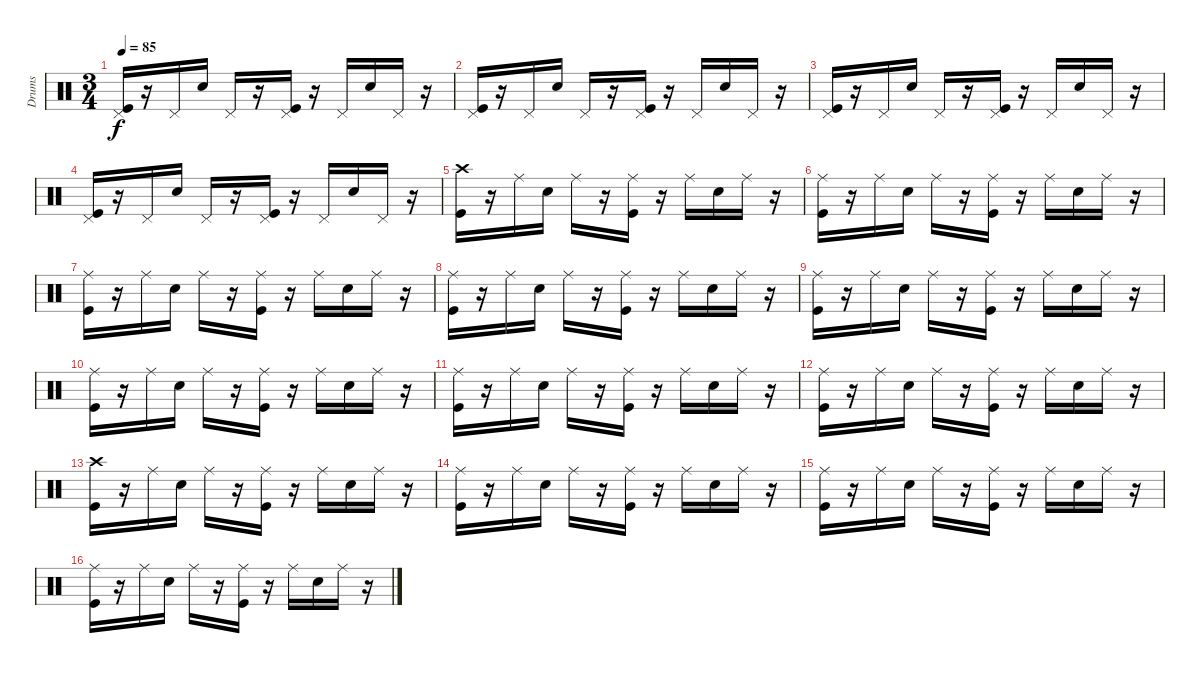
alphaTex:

\track ("Drums" "Drums") {instrument percussion}
\staff {score}
\articulation defaults
\ts (3 4)
\tempo 85
\clef neutral
\ks c
("Pedal Hi-Hat (hit)" "Kick (hit)").16{dy f} r.16 "Pedal Hi-Hat (hit)".16 "Electric Snare (hit)".16 "Pedal Hi-Hat (hit)".16 r.16 ("Pedal Hi-Hat (hit)" "Kick (hit)").16 r.16 "Pedal Hi-Hat (hit)".16 "Electric Snare (hit)".16 "Pedal Hi-Hat (hit)".16 r.16 |
("Pedal Hi-Hat (hit)" "Kick (hit)").16 r.16 "Pedal Hi-Hat (hit)".16 "Electric Snare (hit)".16 "Pedal Hi-Hat (hit)".16 r.16 ("Pedal Hi-Hat (hit)" "Kick (hit)").16 r.16 "Pedal Hi-Hat (hit)".16 "Electric Snare (hit)".16 "Pedal Hi-Hat (hit)".16 r.16 |
("Pedal Hi-Hat (hit)" "Kick (hit)").16 r.16 "Pedal Hi-Hat (hit)".16 "Electric Snare (hit)".16 "Pedal Hi-Hat (hit)".16 r.16 ("Pedal Hi-Hat (hit)" "Kick (hit)").16 r.16 "Pedal Hi-Hat (hit)".16 "Electric Snare (hit)".16 "Pedal Hi-Hat (hit)".16 r.16 |
("Pedal Hi-Hat (hit)" "Kick (hit)").16 r.16 "Pedal Hi-Hat (hit)".16 "Electric Snare (hit)".16 "Pedal Hi-Hat (hit)".16 r.16 ("Pedal Hi-Hat (hit)" "Kick (hit)").16 r.16 "Pedal Hi-Hat (hit)".16 "Electric Snare (hit)".16 "Pedal Hi-Hat (hit)".16 r.16 |
("Crash high (hit)" "Kick (hit)").16 r.16 "Ride (middle)".16 "Electric Snare (hit)".16 "Ride (middle)".16 r.16 ("Ride (middle)" "Kick (hit)").16 r.16 "Ride (middle)".16 "Electric Snare (hit)".16 "Ride (middle)".16 r.16 |
("Ride (middle)" "Kick (hit)").16 r.16 "Ride (middle)".16 "Electric Snare (hit)".16 "Ride (middle)".16 r.16 ("Ride (middle)" "Kick (hit)").16 r.16 "Ride (middle)".16 "Electric Snare (hit)".16 "Ride (middle)".16 r.16 |
("Ride (middle)" "Kick (hit)").16 r.16 "Ride (middle)".16 "Electric Snare (hit)".16 "Ride (middle)".16 r.16 ("Ride (middle)" "Kick (hit)").16 r.16 "Ride (middle)".16 "Electric Snare (hit)".16 "Ride (middle)".16 r.16 |
("Ride (middle)" "Kick (hit)").16 r.16 "Ride (middle)".16 "Electric Snare (hit)".16 "Ride (middle)".16 r.16 ("Ride (middle)" "Kick (hit)").16 r.16 "Ride (middle)".16 "Electric Snare (hit)".16 "Ride (middle)".16 r.16 |
("Ride (middle)" "Kick (hit)").16 r.16 "Ride (middle)".16 "Electric Snare (hit)".16 "Ride (middle)".16 r.16 ("Ride (middle)" "Kick (hit)").16 r.16 "Ride (middle)".16 "Electric Snare (hit)".16 "Ride (middle)".16 r.16 |
("Ride (middle)" "Kick (hit)").16 r.16 "Ride (middle)".16 "Electric Snare (hit)".16 "Ride (middle)".16 r.16 ("Ride (middle)" "Kick (hit)").16 r.16 "Ride (middle)".16 "Electric Snare (hit)".16 "Ride (middle)".16 r.16 |
("Ride (middle)" "Kick (hit)").16 r.16 "Ride (middle)".16 "Electric Snare (hit)".16 "Ride (middle)".16 r.16 ("Ride (middle)" "Kick (hit)").16 r.16 "Ride (middle)".16 "Electric Snare (hit)".16 "Ride (middle)".16 r.16 |
("Ride (middle)" "Kick (hit)").16 r.16 "Ride (middle)".16 "Electric Snare (hit)".16 "Ride (middle)".16 r.16 ("Ride (middle)" "Kick (hit)").16 r.16 "Ride (middle)".16 "Electric Snare (hit)".16 "Ride (middle)".16 r.16 |
("Crash high (hit)" "Kick (hit)").16 r.16 "Ride (middle)".16 "Electric Snare (hit)".16 "Ride (middle)".16 r.16 ("Ride (middle)" "Kick (hit)").16 r.16 "Ride (middle)".16 "Electric Snare (hit)".16 "Ride (middle)".16 r.16 |
("Ride (middle)" "Kick (hit)").16 r.16 "Ride (middle)".16 "Electric Snare (hit)".16 "Ride (middle)".16 r.16 ("Ride (middle)" "Kick (hit)").16 r.16 "Ride (middle)".16 "Electric Snare (hit)".16 "Ride (middle)".16 r.16 |
("Ride (middle)" "Kick (hit)").16 r.16 "Ride (middle)".16 "Electric Snare (hit)".16 "Ride (middle)".16 r.16 ("Ride (middle)" "Kick (hit)").16 r.16 "Ride (middle)".16 "Electric Snare (hit)".16 "Ride (middle)".16 r.16 |
("Ride (middle)" "Kick (hit)").16 r.16 "Ride (middle)".16 "Electric Snare (hit)".16 "Ride (middle)".16 r.16 ("Ride (middle)" "Kick (hit)").16 r.16 "Ride (middle)".16 "Electric Snare (hit)".16 "Ride (middle)".16 r.16
